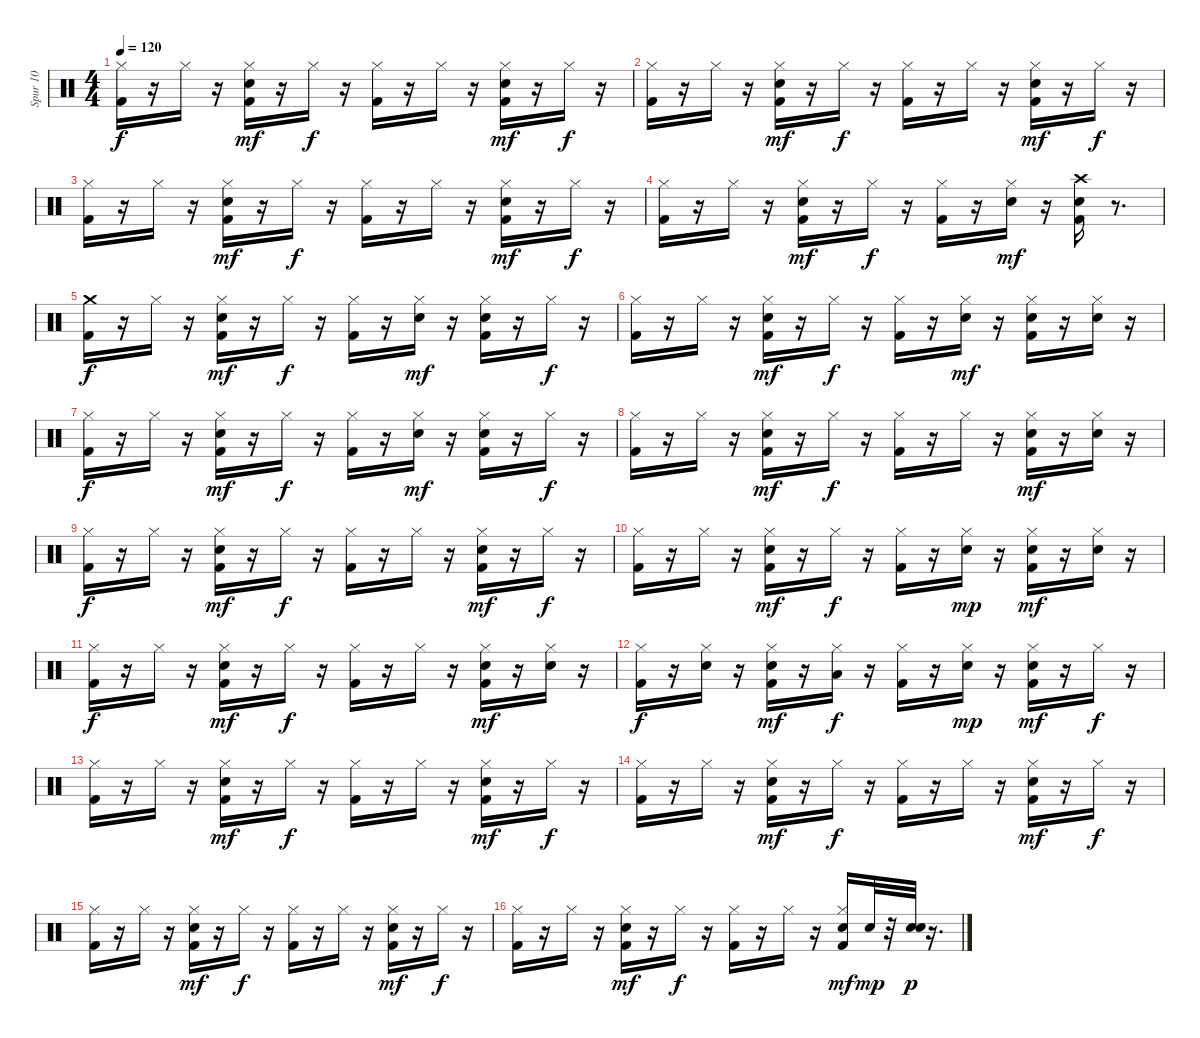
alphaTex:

\track ("Spur 10" "Spur 10") {instrument percussion}
\staff {score}
\articulation defaults
\ts (4 4)
\tempo 120
\clef neutral
\ks c
("Kick (hit) 2" "Hi-Hat (closed)").16{dy f} r.16 "Hi-Hat (closed)".16 r.16 ("Hi-Hat (closed)" "Kick (hit) 2" "Snare (hit) 2").16{dy mf} r.16 "Hi-Hat (closed)".16{dy f} r.16 ("Hi-Hat (closed)" "Kick (hit) 2").16 r.16 "Hi-Hat (closed)".16 r.16 ("Hi-Hat (closed)" "Kick (hit) 2" "Snare (hit) 2").16{dy mf} r.16 "Hi-Hat (closed)".16{dy f} r.16 |
("Hi-Hat (closed)" "Kick (hit) 2").16 r.16 "Hi-Hat (closed)".16 r.16 ("Hi-Hat (closed)" "Kick (hit) 2" "Snare (hit) 2").16{dy mf} r.16 "Hi-Hat (closed)".16{dy f} r.16 ("Hi-Hat (closed)" "Kick (hit) 2").16 r.16 "Hi-Hat (closed)".16 r.16 ("Hi-Hat (closed)" "Kick (hit) 2" "Snare (hit) 2").16{dy mf} r.16 "Hi-Hat (closed)".16{dy f} r.16 |
("Kick (hit) 2" "Hi-Hat (closed)").16 r.16 "Hi-Hat (closed)".16 r.16 ("Hi-Hat (closed)" "Kick (hit) 2" "Snare (hit) 2").16{dy mf} r.16 "Hi-Hat (closed)".16{dy f} r.16 ("Kick (hit) 2" "Hi-Hat (closed)").16 r.16 "Hi-Hat (closed)".16 r.16 ("Hi-Hat (closed)" "Kick (hit) 2" "Snare (hit) 2").16{dy mf} r.16 "Hi-Hat (closed)".16{dy f} r.16 |
("Hi-Hat (closed)" "Kick (hit) 2").16 r.16 "Hi-Hat (closed)".16 r.16 ("Kick (hit) 2" "Hi-Hat (closed)" "Snare (hit) 2").16{dy mf} r.16 "Hi-Hat (closed)".16{dy f} r.16 ("Kick (hit) 2" "Hi-Hat (closed)").16 r.16 ("Hi-Hat (closed)" "Snare (hit) 2").16{dy mf} r.16 ("Kick (hit) 2" "Snare (hit) 2" "Crash high (hit)").16 r.8{d} |
("Crash medium (hit)" "Kick (hit) 2").16{dy f} r.16 "Hi-Hat (closed)".16 r.16 ("Kick (hit) 2" "Hi-Hat (closed)" "Snare (hit) 2").16{dy mf} r.16 "Hi-Hat (closed)".16{dy f} r.16 ("Kick (hit) 2" "Hi-Hat (closed)").16 r.16 ("Hi-Hat (closed)" "Snare (hit) 2").16{dy mf} r.16 ("Kick (hit) 2" "Hi-Hat (closed)" "Snare (hit) 2").16 r.16 "Hi-Hat (closed)".16{dy f} r.16 |
("Hi-Hat (closed)" "Kick (hit) 2").16 r.16 "Hi-Hat (closed)".16 r.16 ("Kick (hit) 2" "Hi-Hat (closed)" "Snare (hit) 2").16{dy mf} r.16 "Hi-Hat (closed)".16{dy f} r.16 ("Hi-Hat (closed)" "Kick (hit) 2").16 r.16 ("Hi-Hat (closed)" "Snare (hit) 2").16{dy mf} r.16 ("Kick (hit) 2" "Hi-Hat (closed)" "Snare (hit) 2").16 r.16 ("Hi-Hat (closed)" "Snare (hit) 2").16 r.16 |
("Hi-Hat (closed)" "Kick (hit) 2").16{dy f} r.16 "Hi-Hat (closed)".16 r.16 ("Kick (hit) 2" "Hi-Hat (closed)" "Snare (hit) 2").16{dy mf} r.16 "Hi-Hat (closed)".16{dy f} r.16 ("Kick (hit) 2" "Hi-Hat (closed)").16 r.16 ("Hi-Hat (closed)" "Snare (hit) 2").16{dy mf} r.16 ("Kick (hit) 2" "Hi-Hat (closed)" "Snare (hit) 2").16 r.16 "Hi-Hat (closed)".16{dy f} r.16 |
("Hi-Hat (closed)" "Kick (hit) 2").16 r.16 "Hi-Hat (closed)".16 r.16 ("Kick (hit) 2" "Hi-Hat (closed)" "Snare (hit) 2").16{dy mf} r.16 "Hi-Hat (closed)".16{dy f} r.16 ("Kick (hit) 2" "Hi-Hat (closed)").16 r.16 "Hi-Hat (closed)".16 r.16 ("Kick (hit) 2" "Hi-Hat (closed)" "Snare (hit) 2").16{dy mf} r.16 ("Hi-Hat (closed)" "Snare (hit) 2").16 r.16 |
("Hi-Hat (closed)" "Kick (hit) 2").16{dy f} r.16 "Hi-Hat (closed)".16 r.16 ("Hi-Hat (closed)" "Kick (hit) 2" "Snare (hit) 2").16{dy mf} r.16 "Hi-Hat (closed)".16{dy f} r.16 ("Kick (hit) 2" "Hi-Hat (closed)").16 r.16 "Hi-Hat (closed)".16 r.16 ("Hi-Hat (closed)" "Kick (hit) 2" "Snare (hit) 2").16{dy mf} r.16 "Hi-Hat (closed)".16{dy f} r.16 |
("Hi-Hat (closed)" "Kick (hit) 2").16 r.16 "Hi-Hat (closed)".16 r.16 ("Hi-Hat (closed)" "Kick (hit) 2" "Snare (hit) 2").16{dy mf} r.16 "Hi-Hat (closed)".16{dy f} r.16 ("Kick (hit) 2" "Hi-Hat (closed)").16 r.16 ("Hi-Hat (closed)" "Snare (hit) 2").16{dy mp} r.16 ("Hi-Hat (closed)" "Kick (hit) 2" "Snare (hit) 2").16{dy mf} r.16 ("Hi-Hat (closed)" "Snare (hit) 2").16 r.16 |
("Hi-Hat (closed)" "Kick (hit) 2").16{dy f} r.16 "Hi-Hat (closed)".16 r.16 ("Hi-Hat (closed)" "Kick (hit) 2" "Snare (hit) 2").16{dy mf} r.16 "Hi-Hat (closed)".16{dy f} r.16 ("Kick (hit) 2" "Hi-Hat (closed)").16 r.16 "Hi-Hat (closed)".16 r.16 ("Hi-Hat (closed)" "Kick (hit) 2" "Snare (hit) 2").16{dy mf} r.16 ("Hi-Hat (closed)" "Snare (hit) 2").16 r.16 |
("Hi-Hat (closed)" "Kick (hit) 2").16{dy f} r.16 ("Electric Snare (hit)" "Hi-Hat (closed)").16 r.16 ("Hi-Hat (closed)" "Kick (hit) 2" "Snare (hit) 2").16{dy mf} r.16 ("Hi-Hat (closed)" "Low Tom (hit)").16{dy f} r.16 ("Kick (hit) 2" "Hi-Hat (closed)").16 r.16 ("Hi-Hat (closed)" "Snare (hit) 2").16{dy mp} r.16 ("Hi-Hat (closed)" "Kick (hit) 2" "Snare (hit) 2").16{dy mf} r.16 "Hi-Hat (closed)".16{dy f} r.16 |
("Kick (hit) 2" "Hi-Hat (closed)").16 r.16 "Hi-Hat (closed)".16 r.16 ("Hi-Hat (closed)" "Kick (hit) 2" "Snare (hit) 2").16{dy mf} r.16 "Hi-Hat (closed)".16{dy f} r.16 ("Hi-Hat (closed)" "Kick (hit) 2").16 r.16 "Hi-Hat (closed)".16 r.16 ("Hi-Hat (closed)" "Kick (hit) 2" "Snare (hit) 2").16{dy mf} r.16 "Hi-Hat (closed)".16{dy f} r.16 |
("Hi-Hat (closed)" "Kick (hit) 2").16 r.16 "Hi-Hat (closed)".16 r.16 ("Hi-Hat (closed)" "Kick (hit) 2" "Snare (hit) 2").16{dy mf} r.16 "Hi-Hat (closed)".16{dy f} r.16 ("Hi-Hat (closed)" "Kick (hit) 2").16 r.16 "Hi-Hat (closed)".16 r.16 ("Hi-Hat (closed)" "Kick (hit) 2" "Snare (hit) 2").16{dy mf} r.16 "Hi-Hat (closed)".16{dy f} r.16 |
("Kick (hit) 2" "Hi-Hat (closed)").16 r.16 "Hi-Hat (closed)".16 r.16 ("Hi-Hat (closed)" "Kick (hit) 2" "Snare (hit) 2").16{dy mf} r.16 "Hi-Hat (closed)".16{dy f} r.16 ("Kick (hit) 2" "Hi-Hat (closed)").16 r.16 "Hi-Hat (closed)".16 r.16 ("Hi-Hat (closed)" "Kick (hit) 2" "Snare (hit) 2").16{dy mf} r.16 "Hi-Hat (closed)".16{dy f} r.16 |
("Hi-Hat (closed)" "Kick (hit) 2").16 r.16 "Hi-Hat (closed)".16 r.16 ("Hi-Hat (closed)" "Kick (hit) 2" "Snare (hit) 2").16{dy mf} r.16 "Hi-Hat (closed)".16{dy f} r.16 ("Kick (hit) 2" "Hi-Hat (closed)").16 r.16 "Hi-Hat (closed)".16 r.16 ("Kick (hit) 2" "Snare (hit) 2" "Hi-Hat (closed)").16{dy mf} "Snare (hit) 2".32{dy mp} r.32 ("Snare (hit) 2" "Snare (hit) 2").32{dy p} r.16{d}
